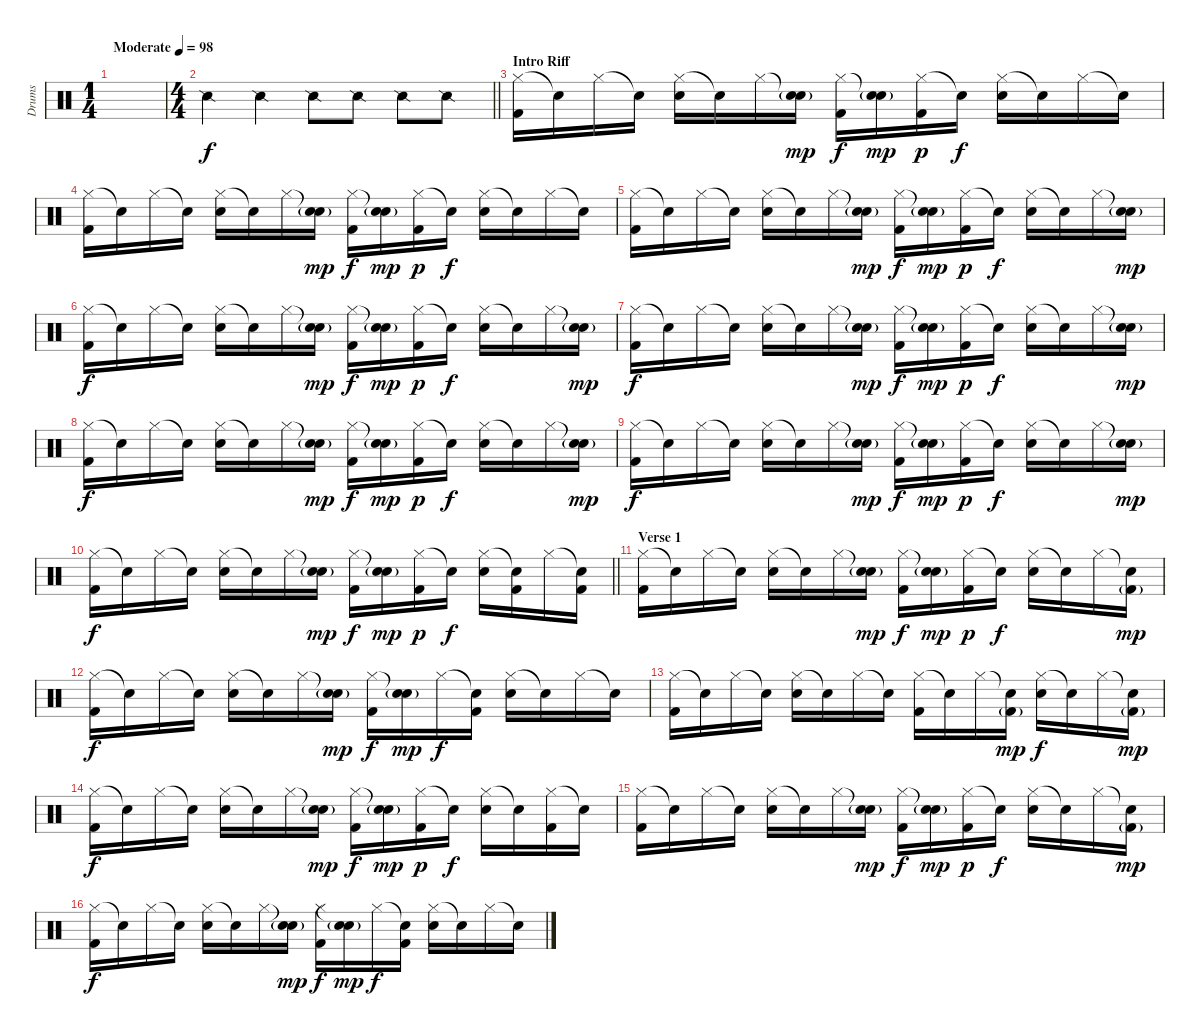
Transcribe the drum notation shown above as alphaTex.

\track ("Drums" "Drums") {instrument percussion}
\staff {score}
\articulation defaults
\ts (1 4)
\tempo (98 "Moderate")
\clef neutral
\ks c
|
\ts (4 4)
\barLineRight lightlight "Snare (side stick) 2".4 "Snare (side stick) 2".4 "Snare (side stick) 2".8 "Snare (side stick) 2".8 "Snare (side stick) 2".8 "Snare (side stick) 2".8
|
\section ("" "Intro Riff")
("Hi-Hat (closed)" "Kick (hit) 2").16 "Snare (hit)"{t}.16 "Hi-Hat (closed)".16 "Snare (hit)"{t}.16 ("Hi-Hat (closed)" "Snare (hit) 2").16 "Snare (hit)"{t}.16 "Hi-Hat (closed)".16 ("Snare (hit)"{t} "Snare (hit) 2"{g}).16{dy mp} ("Hi-Hat (closed)" "Kick (hit) 2").16{dy f} ("Snare (hit)"{t} "Snare (hit) 2"{g}).16{dy mp} ("Hi-Hat (closed)" "Kick (hit) 2").16{dy p} "Snare (hit)"{t}.16{dy f} ("Hi-Hat (closed)" "Snare (hit) 2").16 "Snare (hit)"{t}.16 "Hi-Hat (closed)".16 "Snare (hit)"{t}.16 |
("Hi-Hat (closed)" "Kick (hit) 2").16 "Snare (hit)"{t}.16 "Hi-Hat (closed)".16 "Snare (hit)"{t}.16 ("Hi-Hat (closed)" "Snare (hit) 2").16 "Snare (hit)"{t}.16 "Hi-Hat (closed)".16 ("Snare (hit)"{t} "Snare (hit) 2"{g}).16{dy mp} ("Hi-Hat (closed)" "Kick (hit) 2").16{dy f} ("Snare (hit)"{t} "Snare (hit) 2"{g}).16{dy mp} ("Hi-Hat (closed)" "Kick (hit) 2").16{dy p} "Snare (hit)"{t}.16{dy f} ("Hi-Hat (closed)" "Snare (hit) 2").16 "Snare (hit)"{t}.16 "Hi-Hat (closed)".16 "Snare (hit)"{t}.16 |
("Hi-Hat (closed)" "Kick (hit) 2").16 "Snare (hit)"{t}.16 "Hi-Hat (closed)".16 "Snare (hit)"{t}.16 ("Hi-Hat (closed)" "Snare (hit) 2").16 "Snare (hit)"{t}.16 "Hi-Hat (closed)".16 ("Snare (hit)"{t} "Snare (hit) 2"{g}).16{dy mp} ("Hi-Hat (closed)" "Kick (hit) 2").16{dy f} ("Snare (hit)"{t} "Snare (hit) 2"{g}).16{dy mp} ("Hi-Hat (closed)" "Kick (hit) 2").16{dy p} "Snare (hit)"{t}.16{dy f} ("Hi-Hat (closed)" "Snare (hit) 2").16 "Snare (hit)"{t}.16 "Hi-Hat (closed)".16 ("Snare (hit)"{t} "Snare (hit) 2"{g}).16{dy mp} |
("Hi-Hat (closed)" "Kick (hit) 2").16{dy f} "Snare (hit)"{t}.16 "Hi-Hat (closed)".16 "Snare (hit)"{t}.16 ("Hi-Hat (closed)" "Snare (hit) 2").16 "Snare (hit)"{t}.16 "Hi-Hat (closed)".16 ("Snare (hit)"{t} "Snare (hit) 2"{g}).16{dy mp} ("Hi-Hat (closed)" "Kick (hit) 2").16{dy f} ("Snare (hit)"{t} "Snare (hit) 2"{g}).16{dy mp} ("Hi-Hat (closed)" "Kick (hit) 2").16{dy p} "Snare (hit)"{t}.16{dy f} ("Hi-Hat (closed)" "Snare (hit) 2").16 "Snare (hit)"{t}.16 "Hi-Hat (closed)".16 ("Snare (hit)"{t} "Snare (hit) 2"{g}).16{dy mp} |
("Hi-Hat (closed)" "Kick (hit) 2").16{dy f} "Snare (hit)"{t}.16 "Hi-Hat (closed)".16 "Snare (hit)"{t}.16 ("Hi-Hat (closed)" "Snare (hit) 2").16 "Snare (hit)"{t}.16 "Hi-Hat (closed)".16 ("Snare (hit)"{t} "Snare (hit) 2"{g}).16{dy mp} ("Hi-Hat (closed)" "Kick (hit) 2").16{dy f} ("Snare (hit)"{t} "Snare (hit) 2"{g}).16{dy mp} ("Hi-Hat (closed)" "Kick (hit) 2").16{dy p} "Snare (hit)"{t}.16{dy f} ("Hi-Hat (closed)" "Snare (hit) 2").16 "Snare (hit)"{t}.16 "Hi-Hat (closed)".16 ("Snare (hit)"{t} "Snare (hit) 2"{g}).16{dy mp} |
("Hi-Hat (closed)" "Kick (hit) 2").16{dy f} "Snare (hit)"{t}.16 "Hi-Hat (closed)".16 "Snare (hit)"{t}.16 ("Hi-Hat (closed)" "Snare (hit) 2").16 "Snare (hit)"{t}.16 "Hi-Hat (closed)".16 ("Snare (hit)"{t} "Snare (hit) 2"{g}).16{dy mp} ("Hi-Hat (closed)" "Kick (hit) 2").16{dy f} ("Snare (hit)"{t} "Snare (hit) 2"{g}).16{dy mp} ("Hi-Hat (closed)" "Kick (hit) 2").16{dy p} "Snare (hit)"{t}.16{dy f} ("Hi-Hat (closed)" "Snare (hit) 2").16 "Snare (hit)"{t}.16 "Hi-Hat (closed)".16 ("Snare (hit)"{t} "Snare (hit) 2"{g}).16{dy mp} |
("Hi-Hat (closed)" "Kick (hit) 2").16{dy f} "Snare (hit)"{t}.16 "Hi-Hat (closed)".16 "Snare (hit)"{t}.16 ("Hi-Hat (closed)" "Snare (hit) 2").16 "Snare (hit)"{t}.16 "Hi-Hat (closed)".16 ("Snare (hit)"{t} "Snare (hit) 2"{g}).16{dy mp} ("Hi-Hat (closed)" "Kick (hit) 2").16{dy f} ("Snare (hit)"{t} "Snare (hit) 2"{g}).16{dy mp} ("Hi-Hat (closed)" "Kick (hit) 2").16{dy p} "Snare (hit)"{t}.16{dy f} ("Hi-Hat (closed)" "Snare (hit) 2").16 "Snare (hit)"{t}.16 "Hi-Hat (closed)".16 ("Snare (hit)"{t} "Snare (hit) 2"{g}).16{dy mp} |
\barLineRight lightlight
("Hi-Hat (closed)" "Kick (hit) 2").16{dy f} "Snare (hit)"{t}.16 "Hi-Hat (closed)".16 "Snare (hit)"{t}.16 ("Hi-Hat (closed)" "Snare (hit) 2").16 "Snare (hit)"{t}.16 "Hi-Hat (closed)".16 ("Snare (hit)"{t} "Snare (hit) 2"{g}).16{dy mp} ("Hi-Hat (closed)" "Kick (hit) 2").16{dy f} ("Snare (hit)"{t} "Snare (hit) 2"{g}).16{dy mp} ("Hi-Hat (closed)" "Kick (hit) 2").16{dy p} "Snare (hit)"{t}.16{dy f} ("Hi-Hat (closed)" "Snare (hit) 2").16 ("Snare (hit)"{t} "Kick (hit) 2").16 "Hi-Hat (closed)".16 ("Snare (hit)"{t} "Kick (hit) 2").16 |
\section ("" "Verse 1")
("Hi-Hat (closed)" "Kick (hit) 2").16 "Snare (hit)"{t}.16 "Hi-Hat (closed)".16 "Snare (hit)"{t}.16 ("Hi-Hat (closed)" "Snare (hit) 2").16 "Snare (hit)"{t}.16 "Hi-Hat (closed)".16 ("Snare (hit)"{t} "Snare (hit) 2"{g}).16{dy mp} ("Hi-Hat (closed)" "Kick (hit) 2").16{dy f} ("Snare (hit)"{t} "Snare (hit) 2"{g}).16{dy mp} ("Hi-Hat (closed)" "Kick (hit) 2").16{dy p} "Snare (hit)"{t}.16{dy f} ("Hi-Hat (closed)" "Snare (hit) 2").16 "Snare (hit)"{t}.16 "Hi-Hat (closed)".16 ("Snare (hit)"{t} "Kick (hit) 2"{g}).16{dy mp} |
("Hi-Hat (closed)" "Kick (hit) 2").16{dy f} "Snare (hit)"{t}.16 "Hi-Hat (closed)".16 "Snare (hit)"{t}.16 ("Hi-Hat (closed)" "Snare (hit) 2").16 "Snare (hit)"{t}.16 "Hi-Hat (closed)".16 ("Snare (hit)"{t} "Snare (hit) 2"{g}).16{dy mp} ("Hi-Hat (closed)" "Kick (hit) 2").16{dy f} ("Snare (hit)"{t} "Snare (hit) 2"{g}).16{dy mp} "Hi-Hat (closed)".16{dy f} ("Snare (hit)"{t} "Kick (hit) 2").16 ("Hi-Hat (closed)" "Snare (hit) 2").16 "Snare (hit)"{t}.16 "Hi-Hat (closed)".16 "Snare (hit)"{t}.16 |
("Hi-Hat (closed)" "Kick (hit) 2").16 "Snare (hit)"{t}.16 "Hi-Hat (closed)".16 "Snare (hit)"{t}.16 ("Hi-Hat (closed)" "Snare (hit) 2").16 "Snare (hit)"{t}.16 "Hi-Hat (closed)".16 "Snare (hit)"{t}.16 ("Hi-Hat (closed)" "Kick (hit) 2").16 "Snare (hit)"{t}.16 "Hi-Hat (closed)".16 ("Snare (hit)"{t} "Kick (hit) 2"{g}).16{dy mp} ("Hi-Hat (closed)" "Snare (hit) 2").16{dy f} "Snare (hit)"{t}.16 "Hi-Hat (closed)".16 ("Snare (hit)"{t} "Kick (hit) 2"{g}).16{dy mp} |
("Hi-Hat (closed)" "Kick (hit) 2").16{dy f} "Snare (hit)"{t}.16 "Hi-Hat (closed)".16 "Snare (hit)"{t}.16 ("Hi-Hat (closed)" "Snare (hit) 2").16 "Snare (hit)"{t}.16 "Hi-Hat (closed)".16 ("Snare (hit)"{t} "Snare (hit) 2"{g}).16{dy mp} ("Hi-Hat (closed)" "Kick (hit) 2").16{dy f} ("Snare (hit)"{t} "Snare (hit) 2"{g}).16{dy mp} ("Hi-Hat (closed)" "Kick (hit) 2").16{dy p} "Snare (hit)"{t}.16{dy f} ("Hi-Hat (closed)" "Snare (hit) 2").16 "Snare (hit)"{t}.16 ("Hi-Hat (closed)" "Kick (hit) 2").16 "Snare (hit)"{t}.16 |
("Hi-Hat (closed)" "Kick (hit) 2").16 "Snare (hit)"{t}.16 "Hi-Hat (closed)".16 "Snare (hit)"{t}.16 ("Hi-Hat (closed)" "Snare (hit) 2").16 "Snare (hit)"{t}.16 "Hi-Hat (closed)".16 ("Snare (hit)"{t} "Snare (hit) 2"{g}).16{dy mp} ("Hi-Hat (closed)" "Kick (hit) 2").16{dy f} ("Snare (hit)"{t} "Snare (hit) 2"{g}).16{dy mp} ("Hi-Hat (closed)" "Kick (hit) 2").16{dy p} "Snare (hit)"{t}.16{dy f} ("Hi-Hat (closed)" "Snare (hit) 2").16 "Snare (hit)"{t}.16 "Hi-Hat (closed)".16 ("Snare (hit)"{t} "Kick (hit) 2"{g}).16{dy mp} |
("Hi-Hat (closed)" "Kick (hit) 2").16{dy f} "Snare (hit)"{t}.16 "Hi-Hat (closed)".16 "Snare (hit)"{t}.16 ("Hi-Hat (closed)" "Snare (hit) 2").16 "Snare (hit)"{t}.16 "Hi-Hat (closed)".16 ("Snare (hit)"{t} "Snare (hit) 2"{g}).16{dy mp} ("Hi-Hat (closed)" "Kick (hit) 2").16{dy f} ("Snare (hit)"{t} "Snare (hit) 2"{g}).16{dy mp} "Hi-Hat (closed)".16{dy f} ("Snare (hit)"{t} "Kick (hit) 2").16 ("Hi-Hat (closed)" "Snare (hit) 2").16 "Snare (hit)"{t}.16 "Hi-Hat (closed)".16 "Snare (hit)"{t}.16
